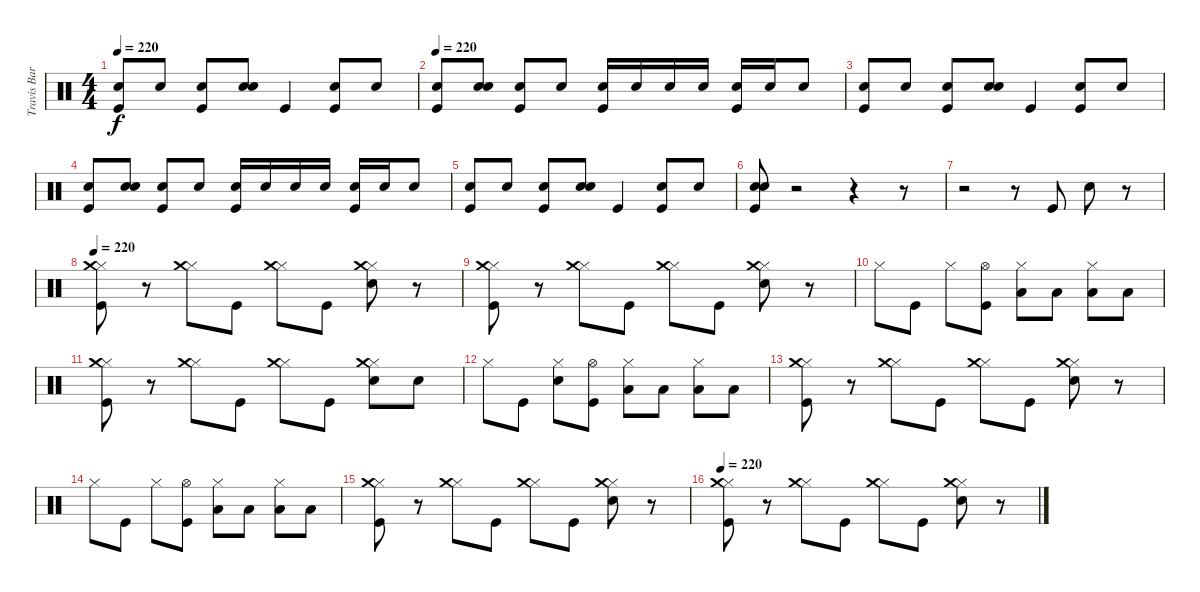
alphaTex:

\track ("Travis Barker" "Travis Bar") {instrument percussion}
\staff {score}
\articulation defaults
\ts (4 4)
\tempo 220
\clef neutral
\ks c
("Electric Snare (hit)" "Kick (hit)").8{dy f} "Electric Snare (hit)".8 ("Electric Snare (hit)" "Kick (hit)").8 ("Electric Snare (hit)" "Electric Snare (hit)").8 "Kick (hit)".4 ("Electric Snare (hit)" "Kick (hit)").8 "Electric Snare (hit)".8 |
\tempo 220
("Electric Snare (hit)" "Kick (hit)").8 ("Electric Snare (hit)" "Electric Snare (hit)").8 ("Electric Snare (hit)" "Kick (hit)").8 "Electric Snare (hit)".8 ("Electric Snare (hit)" "Kick (hit)").16 "Electric Snare (hit)".16 "Electric Snare (hit)".16 "Electric Snare (hit)".16 ("Electric Snare (hit)" "Kick (hit)").16 "Electric Snare (hit)".16 "Electric Snare (hit)".8 |
("Electric Snare (hit)" "Kick (hit)").8 "Electric Snare (hit)".8 ("Electric Snare (hit)" "Kick (hit)").8 ("Electric Snare (hit)" "Electric Snare (hit)").8 "Kick (hit)".4 ("Electric Snare (hit)" "Kick (hit)").8 "Electric Snare (hit)".8 |
("Electric Snare (hit)" "Kick (hit)").8 ("Electric Snare (hit)" "Electric Snare (hit)").8 ("Electric Snare (hit)" "Kick (hit)").8 "Electric Snare (hit)".8 ("Electric Snare (hit)" "Kick (hit)").16 "Electric Snare (hit)".16 "Electric Snare (hit)".16 "Electric Snare (hit)".16 ("Electric Snare (hit)" "Kick (hit)").16 "Electric Snare (hit)".16 "Electric Snare (hit)".8 |
("Electric Snare (hit)" "Kick (hit)").8 "Electric Snare (hit)".8 ("Electric Snare (hit)" "Kick (hit)").8 ("Electric Snare (hit)" "Electric Snare (hit)").8 "Kick (hit)".4 ("Electric Snare (hit)" "Kick (hit)").8 "Electric Snare (hit)".8 |
("Electric Snare (hit)" "Electric Snare (hit)" "Kick (hit)").8 r.2 r.4 r.8 |
r.2 r.8 "Kick (hit)".8 "Electric Snare (hit)".8 r.8 |
\tempo 220
("Kick (hit)" "Hi-Hat (closed)" "Crash medium (hit)").8 r.8 ("Hi-Hat (closed)" "Crash medium (hit)").8 "Kick (hit)".8 ("Hi-Hat (closed)" "Crash medium (hit)").8 "Kick (hit)".8 ("Electric Snare (hit)" "Hi-Hat (closed)" "Crash medium (hit)").8 r.8 |
("Kick (hit)" "Hi-Hat (closed)" "Crash medium (hit)").8 r.8 ("Hi-Hat (closed)" "Crash medium (hit)").8 "Kick (hit)".8 ("Hi-Hat (closed)" "Crash medium (hit)").8 "Kick (hit)".8 ("Electric Snare (hit)" "Hi-Hat (closed)" "Crash medium (hit)").8 r.8 |
"Hi-Hat (closed)".8 "Kick (hit)".8 "Hi-Hat (closed)".8 ("Kick (hit)" "Hi-Hat (open)").8 ("Low Tom (hit)" "Hi-Hat (closed)").8 "Low Tom (hit)".8 ("Low Floor Tom (hit)" "Hi-Hat (closed)").8 "Low Floor Tom (hit)".8 |
("Kick (hit)" "Hi-Hat (closed)" "Crash medium (hit)").8 r.8 ("Hi-Hat (closed)" "Crash medium (hit)").8 "Kick (hit)".8 ("Hi-Hat (closed)" "Crash medium (hit)").8 "Kick (hit)".8 ("Electric Snare (hit)" "Hi-Hat (closed)" "Crash medium (hit)").8 "Electric Snare (hit)".8 |
"Hi-Hat (closed)".8 "Kick (hit)".8 ("Electric Snare (hit)" "Hi-Hat (closed)").8 ("Kick (hit)" "Hi-Hat (open)").8 ("Low Tom (hit)" "Hi-Hat (closed)").8 "Low Tom (hit)".8 ("Low Floor Tom (hit)" "Hi-Hat (closed)").8 "Low Floor Tom (hit)".8 |
("Kick (hit)" "Hi-Hat (closed)" "Crash medium (hit)").8 r.8 ("Hi-Hat (closed)" "Crash medium (hit)").8 "Kick (hit)".8 ("Hi-Hat (closed)" "Crash medium (hit)").8 "Kick (hit)".8 ("Electric Snare (hit)" "Hi-Hat (closed)" "Crash medium (hit)").8 r.8 |
"Hi-Hat (closed)".8 "Kick (hit)".8 "Hi-Hat (closed)".8 ("Kick (hit)" "Hi-Hat (open)").8 ("Low Tom (hit)" "Hi-Hat (closed)").8 "Low Tom (hit)".8 ("Low Floor Tom (hit)" "Hi-Hat (closed)").8 "Low Floor Tom (hit)".8 |
("Kick (hit)" "Hi-Hat (closed)" "Crash medium (hit)").8 r.8 ("Hi-Hat (closed)" "Crash medium (hit)").8 "Kick (hit)".8 ("Hi-Hat (closed)" "Crash medium (hit)").8 "Kick (hit)".8 ("Electric Snare (hit)" "Hi-Hat (closed)" "Crash medium (hit)").8 r.8 |
\tempo 220
("Kick (hit)" "Hi-Hat (closed)" "Crash medium (hit)").8 r.8 ("Hi-Hat (closed)" "Crash medium (hit)").8 "Kick (hit)".8 ("Hi-Hat (closed)" "Crash medium (hit)").8 "Kick (hit)".8 ("Electric Snare (hit)" "Hi-Hat (closed)" "Crash medium (hit)").8 r.8
